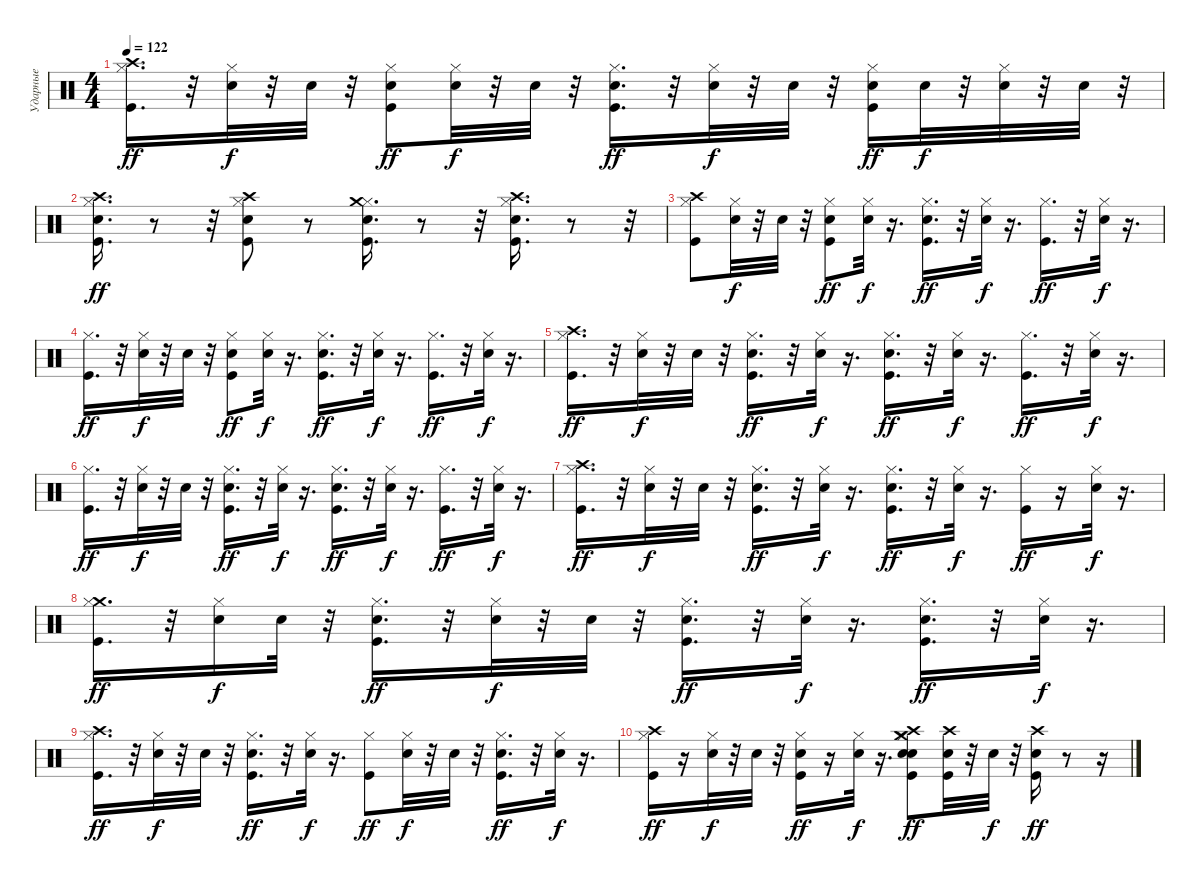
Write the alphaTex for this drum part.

\track ("Ударные" "Ударные") {instrument percussion}
\staff {score}
\articulation defaults
\ts (4 4)
\tempo 122
\clef neutral
\ks c
("Crash high (hit)" "Hi-Hat (closed)" "Kick (hit)").16{d dy ff} r.32 ("Hi-Hat (closed)" "Electric Snare (hit)").32{dy f} r.32 "Electric Snare (hit)".32 r.32 ("Kick (hit)" "Hi-Hat (closed)" "Electric Snare (hit)").8{dy ff} ("Electric Snare (hit)" "Hi-Hat (closed)").32{dy f} r.32 "Electric Snare (hit)".32 r.32 ("Electric Snare (hit)" "Kick (hit)" "Hi-Hat (closed)").16{d dy ff} r.32 ("Hi-Hat (closed)" "Electric Snare (hit)").32{dy f} r.32 "Electric Snare (hit)".32 r.32 ("Kick (hit)" "Hi-Hat (closed)" "Electric Snare (hit)").16{dy ff} "Electric Snare (hit)".32{dy f} r.32 ("Electric Snare (hit)" "Hi-Hat (closed)").32 r.32 "Electric Snare (hit)".32 r.32 |
("Electric Snare (hit)" "Crash high (hit)" "Hi-Hat (closed)" "Kick (hit)").16{d dy ff} r.8 r.32 ("Electric Snare (hit)" "Crash high (hit)" "Hi-Hat (closed)" "Kick (hit)").8 r.8 ("Electric Snare (hit)" "Kick (hit)" "Hi-Hat (closed)" "Crash medium (hit)").16{d} r.8 r.32 ("Hi-Hat (closed)" "Kick (hit)" "Crash high (hit)" "Electric Snare (hit)").16{d} r.8 r.32 |
("Crash high (hit)" "Kick (hit)" "Hi-Hat (closed)").8 ("Electric Snare (hit)" "Hi-Hat (closed)").32{dy f} r.32 "Electric Snare (hit)".32 r.32 ("Electric Snare (hit)" "Hi-Hat (closed)" "Kick (hit)").8{dy ff} ("Electric Snare (hit)" "Hi-Hat (closed)").32{dy f} r.16{d} ("Electric Snare (hit)" "Hi-Hat (closed)" "Kick (hit)").16{d dy ff} r.32 ("Electric Snare (hit)" "Hi-Hat (closed)").32{dy f} r.16{d} ("Hi-Hat (closed)" "Kick (hit)").16{d dy ff} r.32 ("Electric Snare (hit)" "Hi-Hat (closed)").32{dy f} r.16{d} |
("Kick (hit)" "Hi-Hat (closed)").16{d dy ff} r.32 ("Electric Snare (hit)" "Hi-Hat (closed)").32{dy f} r.32 "Electric Snare (hit)".32 r.32 ("Electric Snare (hit)" "Hi-Hat (closed)" "Kick (hit)").8{dy ff} ("Electric Snare (hit)" "Hi-Hat (closed)").32{dy f} r.16{d} ("Electric Snare (hit)" "Kick (hit)" "Hi-Hat (closed)").16{d dy ff} r.32 ("Electric Snare (hit)" "Hi-Hat (closed)").32{dy f} r.16{d} ("Kick (hit)" "Hi-Hat (closed)").16{d dy ff} r.32 ("Hi-Hat (closed)" "Electric Snare (hit)").32{dy f} r.16{d} |
("Crash high (hit)" "Kick (hit)" "Hi-Hat (closed)").16{d dy ff} r.32 ("Hi-Hat (closed)" "Electric Snare (hit)").32{dy f} r.32 "Electric Snare (hit)".32 r.32 ("Hi-Hat (closed)" "Kick (hit)" "Electric Snare (hit)").16{d dy ff} r.32 ("Hi-Hat (closed)" "Electric Snare (hit)").32{dy f} r.16{d} ("Hi-Hat (closed)" "Kick (hit)" "Electric Snare (hit)").16{d dy ff} r.32 ("Hi-Hat (closed)" "Electric Snare (hit)").32{dy f} r.16{d} ("Hi-Hat (closed)" "Kick (hit)").16{d dy ff} r.32 ("Hi-Hat (closed)" "Electric Snare (hit)").32{dy f} r.16{d} |
("Hi-Hat (closed)" "Kick (hit)").16{d dy ff} r.32 ("Electric Snare (hit)" "Hi-Hat (closed)").32{dy f} r.32 "Electric Snare (hit)".32 r.32 ("Hi-Hat (closed)" "Kick (hit)" "Electric Snare (hit)").16{d dy ff} r.32 ("Hi-Hat (closed)" "Electric Snare (hit)").32{dy f} r.16{d} ("Kick (hit)" "Hi-Hat (closed)" "Electric Snare (hit)").16{d dy ff} r.32 ("Electric Snare (hit)" "Hi-Hat (closed)").32{dy f} r.16{d} ("Kick (hit)" "Hi-Hat (closed)").16{d dy ff} r.32 ("Hi-Hat (closed)" "Electric Snare (hit)").32{dy f} r.16{d} |
("Crash high (hit)" "Kick (hit)" "Hi-Hat (closed)").16{d dy ff} r.32 ("Hi-Hat (closed)" "Electric Snare (hit)").32{dy f} r.32 "Electric Snare (hit)".32 r.32 ("Hi-Hat (closed)" "Kick (hit)" "Electric Snare (hit)").16{d dy ff} r.32 ("Hi-Hat (closed)" "Electric Snare (hit)").32{dy f} r.16{d} ("Kick (hit)" "Hi-Hat (closed)" "Electric Snare (hit)").16{d dy ff} r.32 ("Hi-Hat (closed)" "Electric Snare (hit)").32{dy f} r.16{d} ("Kick (hit)" "Hi-Hat (closed)").16{dy ff} r.16 ("Hi-Hat (closed)" "Electric Snare (hit)").32{dy f} r.16{d} |
("Crash medium (hit)" "Kick (hit)" "Hi-Hat (closed)").16{d dy ff} r.32 ("Electric Snare (hit)" "Hi-Hat (closed)").16{dy f} "Electric Snare (hit)".32 r.32 ("Electric Snare (hit)" "Hi-Hat (closed)" "Kick (hit)").16{d dy ff} r.32 ("Hi-Hat (closed)" "Electric Snare (hit)").32{dy f} r.32 "Electric Snare (hit)".32 r.32 ("Kick (hit)" "Hi-Hat (closed)" "Electric Snare (hit)").16{d dy ff} r.32 ("Hi-Hat (closed)" "Electric Snare (hit)").32{dy f} r.16{d} ("Kick (hit)" "Hi-Hat (closed)" "Electric Snare (hit)").16{d dy ff} r.32 ("Hi-Hat (closed)" "Electric Snare (hit)").32{dy f} r.16{d} |
("Crash high (hit)" "Kick (hit)" "Hi-Hat (closed)").16{d dy ff} r.32 ("Hi-Hat (closed)" "Electric Snare (hit)").32{dy f} r.32 "Electric Snare (hit)".32 r.32 ("Kick (hit)" "Hi-Hat (closed)" "Electric Snare (hit)").16{d dy ff} r.32 ("Hi-Hat (closed)" "Electric Snare (hit)").32{dy f} r.16{d} ("Kick (hit)" "Hi-Hat (closed)").8{dy ff} ("Electric Snare (hit)" "Hi-Hat (closed)").32{dy f} r.32 "Electric Snare (hit)".32 r.32 ("Electric Snare (hit)" "Kick (hit)" "Hi-Hat (closed)").16{d dy ff} r.32 ("Hi-Hat (closed)" "Electric Snare (hit)").32{dy f} r.16{d} |
("Crash high (hit)" "Kick (hit)" "Hi-Hat (closed)").16{dy ff} r.16 ("Electric Snare (hit)" "Hi-Hat (closed)").32{dy f} r.32 "Electric Snare (hit)".32 r.32 ("Electric Snare (hit)" "Hi-Hat (closed)" "Kick (hit)").16{dy ff} r.16 ("Hi-Hat (closed)" "Electric Snare (hit)").32{dy f} r.16{d} ("Crash medium (hit)" "Kick (hit)" "Hi-Hat (closed)" "Electric Snare (hit)" "Electric Snare (hit)" "Crash high (hit)").8{dy ff} ("Crash high (hit)" "Kick (hit)" "Electric Snare (hit)").32 r.32 "Electric Snare (hit)".32{dy f} r.32 ("Electric Snare (hit)" "Crash high (hit)" "Kick (hit)").16{dy ff} r.8 r.16
